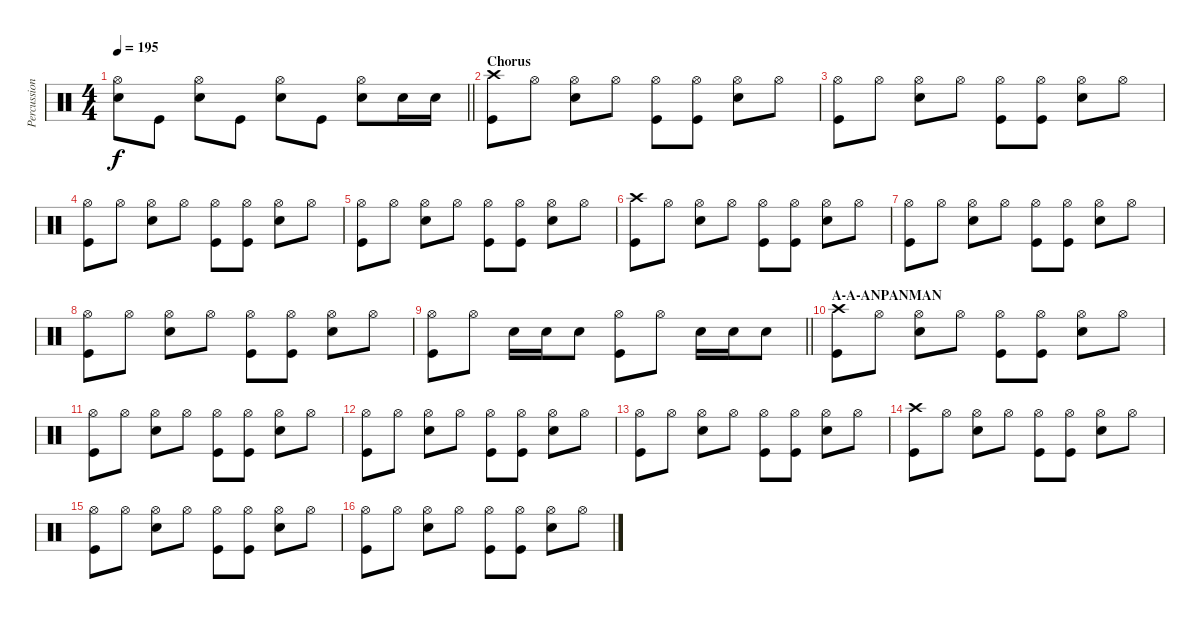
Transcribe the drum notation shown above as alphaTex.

\track ("Percussion" "Percussion") {instrument percussion}
\staff {score}
\articulation defaults
\ts (4 4)
\tempo 195
\clef neutral
\barLineRight lightlight
\ks c
("Hi-Hat (open)" "Snare (hit) 2").8{dy f} "Kick (hit)".8 ("Hi-Hat (open)" "Snare (hit) 2").8 "Kick (hit)".8 ("Hi-Hat (open)" "Snare (hit) 2").8 "Kick (hit)".8 ("Hi-Hat (open)" "Snare (hit) 2").8 "Snare (hit) 2".16 "Snare (hit) 2".16 |
\section ("" "Chorus")
("Crash high (hit)" "Kick (hit)").8 "Hi-Hat (open)".8 ("Hi-Hat (open)" "Snare (hit) 2").8 "Hi-Hat (open)".8 ("Hi-Hat (open)" "Kick (hit)").8 ("Hi-Hat (open)" "Kick (hit)").8 ("Hi-Hat (open)" "Snare (hit) 2").8 "Hi-Hat (open)".8 |
("Hi-Hat (open)" "Kick (hit)").8 "Hi-Hat (open)".8 ("Hi-Hat (open)" "Snare (hit) 2").8 "Hi-Hat (open)".8 ("Hi-Hat (open)" "Kick (hit)").8 ("Hi-Hat (open)" "Kick (hit)").8 ("Hi-Hat (open)" "Snare (hit) 2").8 "Hi-Hat (open)".8 |
("Hi-Hat (open)" "Kick (hit)").8 "Hi-Hat (open)".8 ("Hi-Hat (open)" "Snare (hit) 2").8 "Hi-Hat (open)".8 ("Hi-Hat (open)" "Kick (hit)").8 ("Hi-Hat (open)" "Kick (hit)").8 ("Hi-Hat (open)" "Snare (hit) 2").8 "Hi-Hat (open)".8 |
("Hi-Hat (open)" "Kick (hit)").8 "Hi-Hat (open)".8 ("Hi-Hat (open)" "Snare (hit) 2").8 "Hi-Hat (open)".8 ("Hi-Hat (open)" "Kick (hit)").8 ("Hi-Hat (open)" "Kick (hit)").8 ("Hi-Hat (open)" "Snare (hit) 2").8 "Hi-Hat (open)".8 |
("Crash high (hit)" "Kick (hit)").8 "Hi-Hat (open)".8 ("Hi-Hat (open)" "Snare (hit) 2").8 "Hi-Hat (open)".8 ("Hi-Hat (open)" "Kick (hit)").8 ("Hi-Hat (open)" "Kick (hit)").8 ("Hi-Hat (open)" "Snare (hit) 2").8 "Hi-Hat (open)".8 |
("Hi-Hat (open)" "Kick (hit)").8 "Hi-Hat (open)".8 ("Hi-Hat (open)" "Snare (hit) 2").8 "Hi-Hat (open)".8 ("Hi-Hat (open)" "Kick (hit)").8 ("Hi-Hat (open)" "Kick (hit)").8 ("Hi-Hat (open)" "Snare (hit) 2").8 "Hi-Hat (open)".8 |
("Hi-Hat (open)" "Kick (hit)").8 "Hi-Hat (open)".8 ("Hi-Hat (open)" "Snare (hit) 2").8 "Hi-Hat (open)".8 ("Hi-Hat (open)" "Kick (hit)").8 ("Hi-Hat (open)" "Kick (hit)").8 ("Hi-Hat (open)" "Snare (hit) 2").8 "Hi-Hat (open)".8 |
\barLineRight lightlight
("Hi-Hat (open)" "Kick (hit)").8 "Hi-Hat (open)".8 "Snare (hit) 2".16 "Snare (hit) 2".16 "Snare (hit) 2".8 ("Hi-Hat (open)" "Kick (hit)").8 "Hi-Hat (open)".8 "Snare (hit) 2".16 "Snare (hit) 2".16 "Snare (hit) 2".8 |
\section ("" "A-A-ANPANMAN")
("Crash high (hit)" "Kick (hit)").8 "Hi-Hat (open)".8 ("Hi-Hat (open)" "Snare (hit) 2").8 "Hi-Hat (open)".8 ("Hi-Hat (open)" "Kick (hit)").8 ("Hi-Hat (open)" "Kick (hit)").8 ("Hi-Hat (open)" "Snare (hit) 2").8 "Hi-Hat (open)".8 |
("Hi-Hat (open)" "Kick (hit)").8 "Hi-Hat (open)".8 ("Hi-Hat (open)" "Snare (hit) 2").8 "Hi-Hat (open)".8 ("Hi-Hat (open)" "Kick (hit)").8 ("Hi-Hat (open)" "Kick (hit)").8 ("Hi-Hat (open)" "Snare (hit) 2").8 "Hi-Hat (open)".8 |
("Hi-Hat (open)" "Kick (hit)").8 "Hi-Hat (open)".8 ("Hi-Hat (open)" "Snare (hit) 2").8 "Hi-Hat (open)".8 ("Hi-Hat (open)" "Kick (hit)").8 ("Hi-Hat (open)" "Kick (hit)").8 ("Hi-Hat (open)" "Snare (hit) 2").8 "Hi-Hat (open)".8 |
("Hi-Hat (open)" "Kick (hit)").8 "Hi-Hat (open)".8 ("Hi-Hat (open)" "Snare (hit) 2").8 "Hi-Hat (open)".8 ("Hi-Hat (open)" "Kick (hit)").8 ("Hi-Hat (open)" "Kick (hit)").8 ("Hi-Hat (open)" "Snare (hit) 2").8 "Hi-Hat (open)".8 |
("Crash high (hit)" "Kick (hit)").8 "Hi-Hat (open)".8 ("Hi-Hat (open)" "Snare (hit) 2").8 "Hi-Hat (open)".8 ("Hi-Hat (open)" "Kick (hit)").8 ("Hi-Hat (open)" "Kick (hit)").8 ("Hi-Hat (open)" "Snare (hit) 2").8 "Hi-Hat (open)".8 |
("Hi-Hat (open)" "Kick (hit)").8 "Hi-Hat (open)".8 ("Hi-Hat (open)" "Snare (hit) 2").8 "Hi-Hat (open)".8 ("Hi-Hat (open)" "Kick (hit)").8 ("Hi-Hat (open)" "Kick (hit)").8 ("Hi-Hat (open)" "Snare (hit) 2").8 "Hi-Hat (open)".8 |
("Hi-Hat (open)" "Kick (hit)").8 "Hi-Hat (open)".8 ("Hi-Hat (open)" "Snare (hit) 2").8 "Hi-Hat (open)".8 ("Hi-Hat (open)" "Kick (hit)").8 ("Hi-Hat (open)" "Kick (hit)").8 ("Hi-Hat (open)" "Snare (hit) 2").8 "Hi-Hat (open)".8
